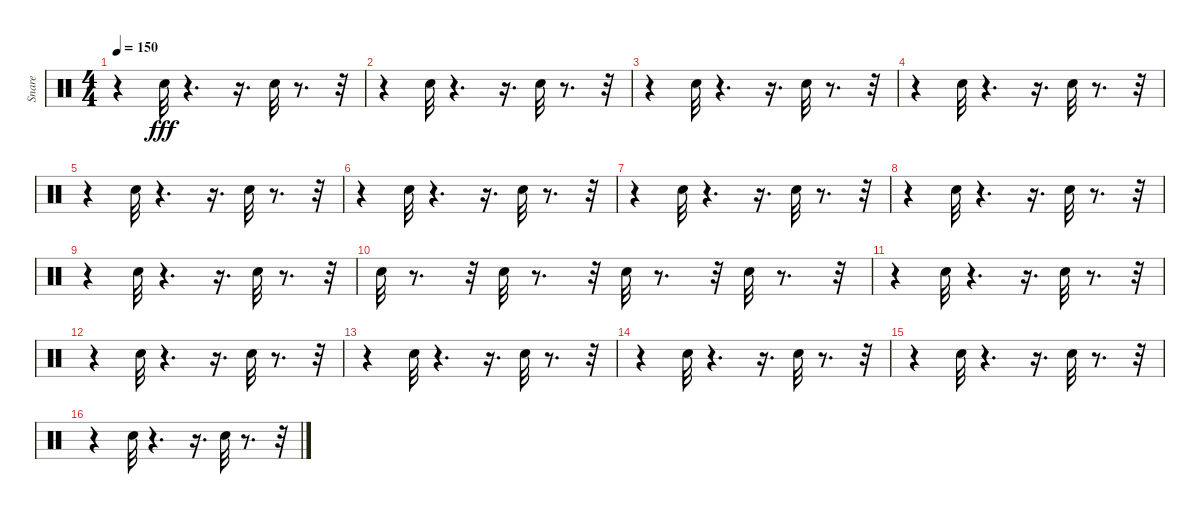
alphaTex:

\track ("Snare" "Snare") {instrument percussion}
\staff {score}
\articulation defaults
\ts (4 4)
\tempo 150
\clef neutral
\ks c
r.4{dy fff} "Electric Snare (hit)".32 r.4{d} r.16{d} "Electric Snare (hit)".32 r.8{d} r.32 |
r.4 "Electric Snare (hit)".32 r.4{d} r.16{d} "Electric Snare (hit)".32 r.8{d} r.32 |
r.4 "Electric Snare (hit)".32 r.4{d} r.16{d} "Electric Snare (hit)".32 r.8{d} r.32 |
r.4 "Electric Snare (hit)".32 r.4{d} r.16{d} "Electric Snare (hit)".32 r.8{d} r.32 |
r.4 "Electric Snare (hit)".32 r.4{d} r.16{d} "Electric Snare (hit)".32 r.8{d} r.32 |
r.4 "Electric Snare (hit)".32 r.4{d} r.16{d} "Electric Snare (hit)".32 r.8{d} r.32 |
r.4 "Electric Snare (hit)".32 r.4{d} r.16{d} "Electric Snare (hit)".32 r.8{d} r.32 |
r.4 "Electric Snare (hit)".32 r.4{d} r.16{d} "Electric Snare (hit)".32 r.8{d} r.32 |
r.4 "Electric Snare (hit)".32 r.4{d} r.16{d} "Electric Snare (hit)".32 r.8{d} r.32 |
"Electric Snare (hit)".32 r.8{d} r.32 "Electric Snare (hit)".32 r.8{d} r.32 "Electric Snare (hit)".32 r.8{d} r.32 "Electric Snare (hit)".32 r.8{d} r.32 |
r.4 "Electric Snare (hit)".32 r.4{d} r.16{d} "Electric Snare (hit)".32 r.8{d} r.32 |
r.4 "Electric Snare (hit)".32 r.4{d} r.16{d} "Electric Snare (hit)".32 r.8{d} r.32 |
r.4 "Electric Snare (hit)".32 r.4{d} r.16{d} "Electric Snare (hit)".32 r.8{d} r.32 |
r.4 "Electric Snare (hit)".32 r.4{d} r.16{d} "Electric Snare (hit)".32 r.8{d} r.32 |
r.4 "Electric Snare (hit)".32 r.4{d} r.16{d} "Electric Snare (hit)".32 r.8{d} r.32 |
r.4 "Electric Snare (hit)".32 r.4{d} r.16{d} "Electric Snare (hit)".32 r.8{d} r.32
